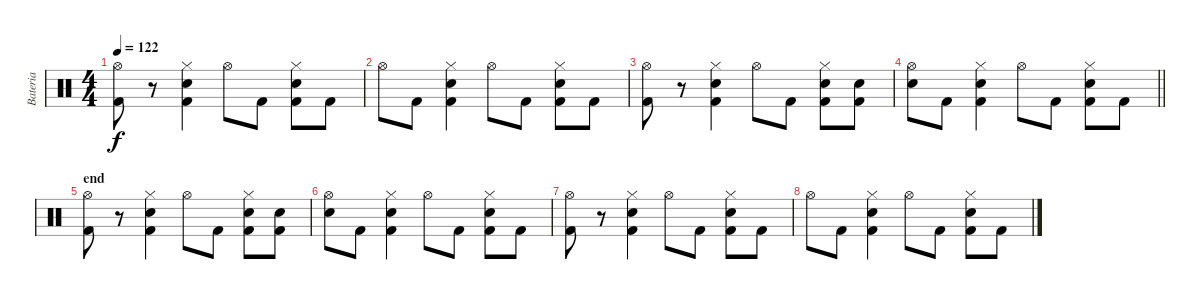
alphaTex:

\track ("Bateria" "Bateria") {instrument percussion}
\staff {score}
\articulation defaults
\ts (4 4)
\tempo 122
\clef neutral
\ks c
("Kick (hit) 2" "Hi-Hat (open)").8{dy f} r.8 ("Kick (hit) 2" "Snare (hit) 2" "Hi-Hat (closed)").4 "Hi-Hat (open)".8 "Kick (hit) 2".8 ("Kick (hit) 2" "Snare (hit) 2" "Hi-Hat (closed)").8 "Kick (hit) 2".8 |
"Hi-Hat (open)".8 "Kick (hit) 2".8 ("Kick (hit) 2" "Snare (hit) 2" "Hi-Hat (closed)").4 "Hi-Hat (open)".8 "Kick (hit) 2".8 ("Kick (hit) 2" "Snare (hit) 2" "Hi-Hat (closed)").8 "Kick (hit) 2".8 |
("Kick (hit) 2" "Hi-Hat (open)").8 r.8 ("Kick (hit) 2" "Snare (hit) 2" "Hi-Hat (closed)").4 "Hi-Hat (open)".8 "Kick (hit) 2".8 ("Kick (hit) 2" "Snare (hit) 2" "Hi-Hat (closed)").8 ("Kick (hit) 2" "Snare (hit)").8 |
\barLineRight lightlight
("Hi-Hat (open)" "Snare (hit)").8 "Kick (hit) 2".8 ("Kick (hit) 2" "Snare (hit) 2" "Hi-Hat (closed)").4 "Hi-Hat (open)".8 "Kick (hit) 2".8 ("Kick (hit) 2" "Snare (hit) 2" "Hi-Hat (closed)").8 "Kick (hit) 2".8 |
\section ("" "end")
("Kick (hit) 2" "Hi-Hat (open)").8 r.8 ("Kick (hit) 2" "Snare (hit) 2" "Hi-Hat (closed)").4 "Hi-Hat (open)".8 "Kick (hit) 2".8 ("Kick (hit) 2" "Snare (hit) 2" "Hi-Hat (closed)").8 ("Kick (hit) 2" "Snare (hit)").8 |
("Hi-Hat (open)" "Snare (hit)").8 "Kick (hit) 2".8 ("Kick (hit) 2" "Snare (hit) 2" "Hi-Hat (closed)").4 "Hi-Hat (open)".8 "Kick (hit) 2".8 ("Kick (hit) 2" "Snare (hit) 2" "Hi-Hat (closed)").8 "Kick (hit) 2".8 |
("Kick (hit) 2" "Hi-Hat (open)").8 r.8 ("Kick (hit) 2" "Snare (hit) 2" "Hi-Hat (closed)").4 "Hi-Hat (open)".8 "Kick (hit) 2".8 ("Kick (hit) 2" "Snare (hit) 2" "Hi-Hat (closed)").8 "Kick (hit) 2".8 |
"Hi-Hat (open)".8 "Kick (hit) 2".8 ("Kick (hit) 2" "Snare (hit) 2" "Hi-Hat (closed)").4 "Hi-Hat (open)".8 "Kick (hit) 2".8 ("Kick (hit) 2" "Snare (hit) 2" "Hi-Hat (closed)").8 "Kick (hit) 2".8
